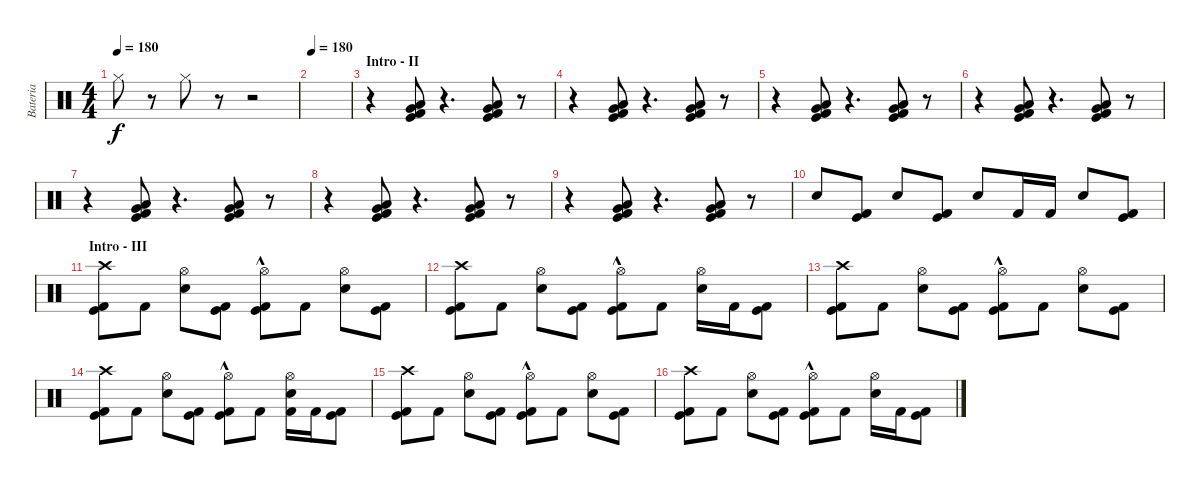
\track ("Bateria" "Bateria") {instrument percussion}
\staff {score}
\articulation defaults
\ts (4 4)
\tempo 180
\clef neutral
\ks c "Hi-Hat (closed)".8{dy f}
r.8 "Hi-Hat (closed)".8 r.8 r.2 |
\tempo 180
|
\section ("" "Intro - II")
r.4 ("Low Floor Tom (hit)" "Very Low Tom (hit)" "Kick (hit)" "Kick (hit) 2").8 r.4{d} ("Low Floor Tom (hit)" "Very Low Tom (hit)" "Kick (hit)" "Kick (hit) 2").8 r.8 |
r.4 ("Low Floor Tom (hit)" "Very Low Tom (hit)" "Kick (hit)" "Kick (hit) 2").8 r.4{d} ("Low Floor Tom (hit)" "Very Low Tom (hit)" "Kick (hit)" "Kick (hit) 2").8 r.8 |
r.4 ("Low Floor Tom (hit)" "Very Low Tom (hit)" "Kick (hit)" "Kick (hit) 2").8 r.4{d} ("Low Floor Tom (hit)" "Very Low Tom (hit)" "Kick (hit)" "Kick (hit) 2").8 r.8 |
r.4 ("Low Floor Tom (hit)" "Very Low Tom (hit)" "Kick (hit)" "Kick (hit) 2").8 r.4{d} ("Low Floor Tom (hit)" "Very Low Tom (hit)" "Kick (hit)" "Kick (hit) 2").8 r.8 |
r.4 ("Low Floor Tom (hit)" "Very Low Tom (hit)" "Kick (hit)" "Kick (hit) 2").8 r.4{d} ("Low Floor Tom (hit)" "Very Low Tom (hit)" "Kick (hit)" "Kick (hit) 2").8 r.8 |
r.4 ("Low Floor Tom (hit)" "Very Low Tom (hit)" "Kick (hit)" "Kick (hit) 2").8 r.4{d} ("Low Floor Tom (hit)" "Very Low Tom (hit)" "Kick (hit)" "Kick (hit) 2").8 r.8 |
r.4 ("Low Floor Tom (hit)" "Very Low Tom (hit)" "Kick (hit)" "Kick (hit) 2").8 r.4{d} ("Low Floor Tom (hit)" "Very Low Tom (hit)" "Kick (hit)" "Kick (hit) 2").8 r.8 |
"Snare (hit) 2".8 ("Kick (hit)" "Kick (hit) 2").8 "Snare (hit) 2".8 ("Kick (hit)" "Kick (hit) 2").8 "Snare (hit) 2".8 "Kick (hit) 2".16 "Kick (hit) 2".16 "Snare (hit) 2".8 ("Kick (hit)" "Kick (hit) 2").8 |
\section ("" "Intro - III")
("Crash high (hit)" "Kick (hit)" "Kick (hit) 2").8 "Kick (hit) 2".8 ("Hi-Hat (open)" "Snare (hit) 2").8 ("Kick (hit)" "Kick (hit) 2").8 ("Hi-Hat (open)"{hac} "Kick (hit)" "Kick (hit) 2").8 "Kick (hit) 2".8 ("Hi-Hat (open)" "Snare (hit) 2").8 ("Kick (hit)" "Kick (hit) 2").8 |
("Crash high (hit)" "Kick (hit)" "Kick (hit) 2").8 "Kick (hit) 2".8 ("Hi-Hat (open)" "Snare (hit) 2").8 ("Kick (hit)" "Kick (hit) 2").8 ("Hi-Hat (open)"{hac} "Kick (hit)" "Kick (hit) 2").8 "Kick (hit) 2".8 ("Hi-Hat (open)" "Snare (hit) 2").16 "Kick (hit) 2".16 ("Kick (hit)" "Kick (hit) 2").8 |
("Crash high (hit)" "Kick (hit)" "Kick (hit) 2").8 "Kick (hit) 2".8 ("Hi-Hat (open)" "Snare (hit) 2").8 ("Kick (hit)" "Kick (hit) 2").8 ("Hi-Hat (open)"{hac} "Kick (hit)" "Kick (hit) 2").8 "Kick (hit) 2".8 ("Hi-Hat (open)" "Snare (hit) 2").8 ("Kick (hit)" "Kick (hit) 2").8 |
("Crash high (hit)" "Kick (hit)" "Kick (hit) 2").8 "Kick (hit) 2".8 ("Hi-Hat (open)" "Snare (hit) 2").8 ("Kick (hit)" "Kick (hit) 2").8 ("Hi-Hat (open)"{hac} "Kick (hit)" "Kick (hit) 2").8 "Kick (hit) 2".8 ("Hi-Hat (open)" "Snare (hit) 2" "Kick (hit) 2").16 "Kick (hit) 2".16 ("Kick (hit)" "Kick (hit) 2").8 |
("Crash high (hit)" "Kick (hit)" "Kick (hit) 2").8 "Kick (hit) 2".8 ("Hi-Hat (open)" "Snare (hit) 2").8 ("Kick (hit)" "Kick (hit) 2").8 ("Hi-Hat (open)"{hac} "Kick (hit)" "Kick (hit) 2").8 "Kick (hit) 2".8 ("Hi-Hat (open)" "Snare (hit) 2").8 ("Kick (hit)" "Kick (hit) 2").8 |
("Crash high (hit)" "Kick (hit)" "Kick (hit) 2").8 "Kick (hit) 2".8 ("Hi-Hat (open)" "Snare (hit) 2").8 ("Kick (hit)" "Kick (hit) 2").8 ("Hi-Hat (open)"{hac} "Kick (hit)" "Kick (hit) 2").8 "Kick (hit) 2".8 ("Hi-Hat (open)" "Snare (hit) 2").16 "Kick (hit) 2".16 ("Kick (hit)" "Kick (hit) 2").8
